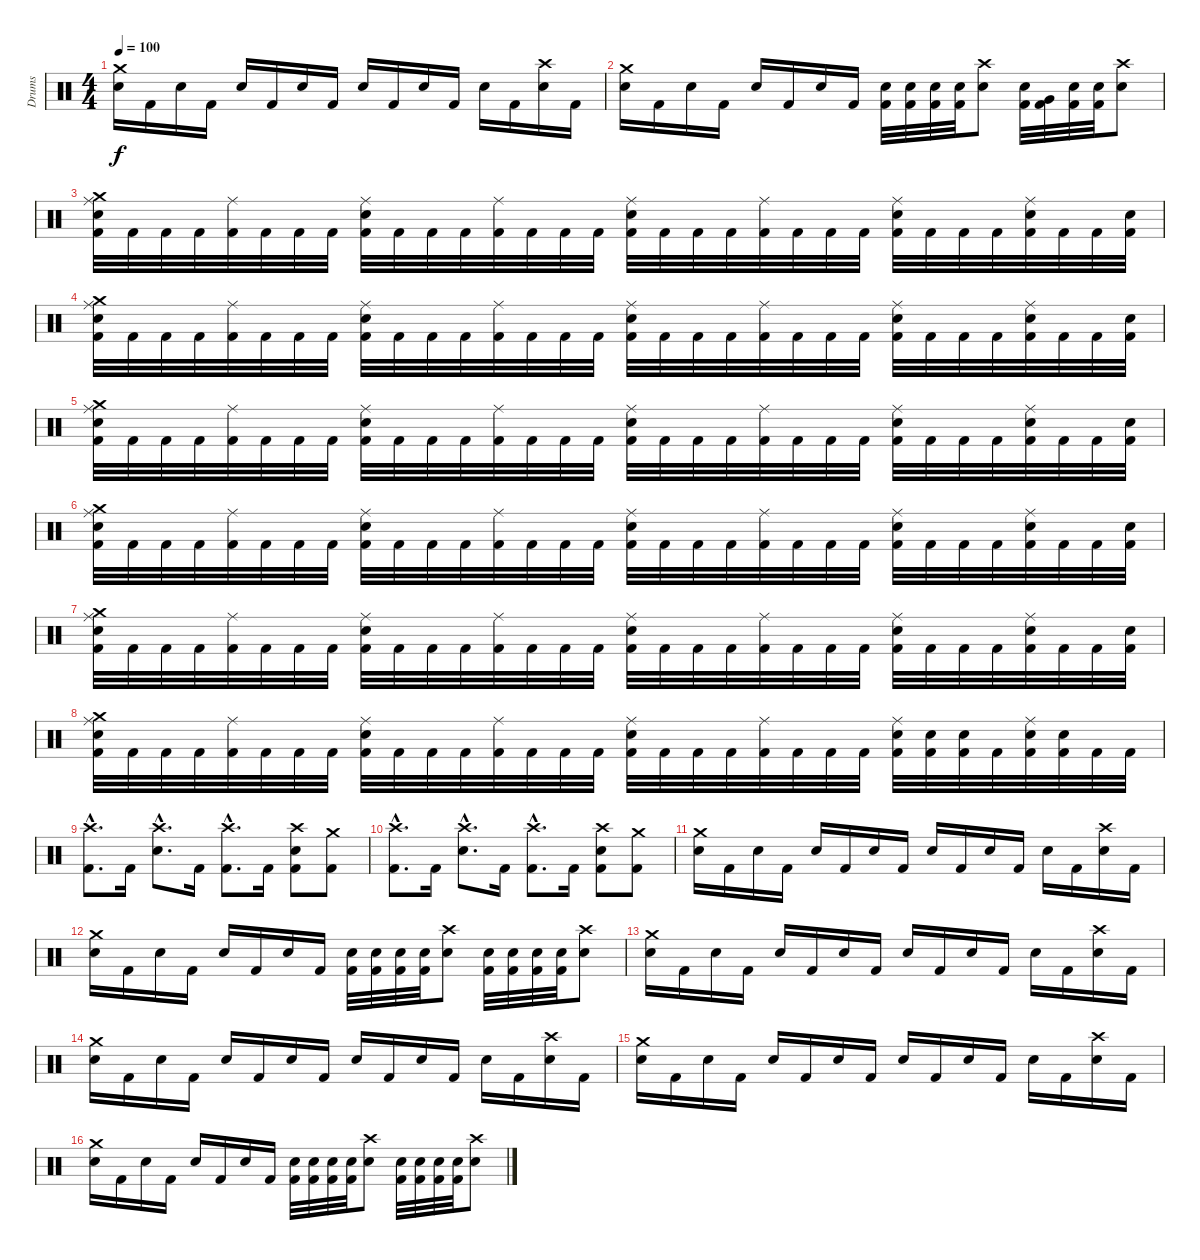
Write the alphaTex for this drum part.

\track ("Drums" "Drums") {instrument percussion}
\staff {score}
\articulation defaults
\ts (4 4)
\tempo 100
\clef neutral
\ks c
("Crash medium (hit)" "Electric Snare (hit)").16{dy f} "Kick (hit) 2".16 "Electric Snare (hit)".16 "Kick (hit) 2".16 "Electric Snare (hit)".16 "Kick (hit) 2".16 "Electric Snare (hit)".16 "Kick (hit) 2".16 "Electric Snare (hit)".16 "Kick (hit) 2".16 "Electric Snare (hit)".16 "Kick (hit) 2".16 "Electric Snare (hit)".16 "Kick (hit) 2".16 ("Crash high (hit)" "Electric Snare (hit)").16 "Kick (hit) 2".16 |
("Crash medium (hit)" "Electric Snare (hit)").16 "Kick (hit) 2".16 "Electric Snare (hit)".16 "Kick (hit) 2".16 "Electric Snare (hit)".16 "Kick (hit) 2".16 "Electric Snare (hit)".16 "Kick (hit) 2".16 ("Electric Snare (hit)" "Kick (hit) 2").32 ("Electric Snare (hit)" "Kick (hit) 2").32 ("Electric Snare (hit)" "Kick (hit) 2").32 ("Electric Snare (hit)" "Kick (hit) 2").32 ("Crash high (hit)" "Electric Snare (hit)").8 ("Electric Snare (hit)" "Kick (hit) 2").32 ("Very Low Tom (hit)" "Kick (hit) 2").32 ("Electric Snare (hit)" "Kick (hit) 2").32 ("Electric Snare (hit)" "Kick (hit) 2").32 ("Crash high (hit)" "Electric Snare (hit)").8 |
("Crash medium (hit)" "Ride (middle)" "Electric Snare (hit)" "Kick (hit) 2").32 "Kick (hit) 2".32 "Kick (hit) 2".32 "Kick (hit) 2".32 ("Ride (middle)" "Kick (hit) 2").32 "Kick (hit) 2".32 "Kick (hit) 2".32 "Kick (hit) 2".32 ("Ride (middle)" "Electric Snare (hit)" "Kick (hit) 2").32 "Kick (hit) 2".32 "Kick (hit) 2".32 "Kick (hit) 2".32 ("Ride (middle)" "Kick (hit) 2").32 "Kick (hit) 2".32 "Kick (hit) 2".32 "Kick (hit) 2".32 ("Ride (middle)" "Electric Snare (hit)" "Kick (hit) 2").32 "Kick (hit) 2".32 "Kick (hit) 2".32 "Kick (hit) 2".32 ("Ride (middle)" "Kick (hit) 2").32 "Kick (hit) 2".32 "Kick (hit) 2".32 "Kick (hit) 2".32 ("Ride (middle)" "Electric Snare (hit)" "Kick (hit) 2").32 "Kick (hit) 2".32 "Kick (hit) 2".32 "Kick (hit) 2".32 ("Ride (middle)" "Electric Snare (hit)" "Kick (hit) 2").32 "Kick (hit) 2".32 "Kick (hit) 2".32 ("Electric Snare (hit)" "Kick (hit) 2").32 |
("Crash medium (hit)" "Ride (middle)" "Electric Snare (hit)" "Kick (hit) 2").32 "Kick (hit) 2".32 "Kick (hit) 2".32 "Kick (hit) 2".32 ("Ride (middle)" "Kick (hit) 2").32 "Kick (hit) 2".32 "Kick (hit) 2".32 "Kick (hit) 2".32 ("Ride (middle)" "Electric Snare (hit)" "Kick (hit) 2").32 "Kick (hit) 2".32 "Kick (hit) 2".32 "Kick (hit) 2".32 ("Ride (middle)" "Kick (hit) 2").32 "Kick (hit) 2".32 "Kick (hit) 2".32 "Kick (hit) 2".32 ("Ride (middle)" "Electric Snare (hit)" "Kick (hit) 2").32 "Kick (hit) 2".32 "Kick (hit) 2".32 "Kick (hit) 2".32 ("Ride (middle)" "Kick (hit) 2").32 "Kick (hit) 2".32 "Kick (hit) 2".32 "Kick (hit) 2".32 ("Ride (middle)" "Electric Snare (hit)" "Kick (hit) 2").32 "Kick (hit) 2".32 "Kick (hit) 2".32 "Kick (hit) 2".32 ("Ride (middle)" "Electric Snare (hit)" "Kick (hit) 2").32 "Kick (hit) 2".32 "Kick (hit) 2".32 ("Electric Snare (hit)" "Kick (hit) 2").32 |
("Crash medium (hit)" "Ride (middle)" "Electric Snare (hit)" "Kick (hit) 2").32 "Kick (hit) 2".32 "Kick (hit) 2".32 "Kick (hit) 2".32 ("Ride (middle)" "Kick (hit) 2").32 "Kick (hit) 2".32 "Kick (hit) 2".32 "Kick (hit) 2".32 ("Ride (middle)" "Electric Snare (hit)" "Kick (hit) 2").32 "Kick (hit) 2".32 "Kick (hit) 2".32 "Kick (hit) 2".32 ("Ride (middle)" "Kick (hit) 2").32 "Kick (hit) 2".32 "Kick (hit) 2".32 "Kick (hit) 2".32 ("Ride (middle)" "Electric Snare (hit)" "Kick (hit) 2").32 "Kick (hit) 2".32 "Kick (hit) 2".32 "Kick (hit) 2".32 ("Ride (middle)" "Kick (hit) 2").32 "Kick (hit) 2".32 "Kick (hit) 2".32 "Kick (hit) 2".32 ("Ride (middle)" "Electric Snare (hit)" "Kick (hit) 2").32 "Kick (hit) 2".32 "Kick (hit) 2".32 "Kick (hit) 2".32 ("Ride (middle)" "Electric Snare (hit)" "Kick (hit) 2").32 "Kick (hit) 2".32 "Kick (hit) 2".32 ("Electric Snare (hit)" "Kick (hit) 2").32 |
("Crash medium (hit)" "Ride (middle)" "Electric Snare (hit)" "Kick (hit) 2").32 "Kick (hit) 2".32 "Kick (hit) 2".32 "Kick (hit) 2".32 ("Ride (middle)" "Kick (hit) 2").32 "Kick (hit) 2".32 "Kick (hit) 2".32 "Kick (hit) 2".32 ("Ride (middle)" "Electric Snare (hit)" "Kick (hit) 2").32 "Kick (hit) 2".32 "Kick (hit) 2".32 "Kick (hit) 2".32 ("Ride (middle)" "Kick (hit) 2").32 "Kick (hit) 2".32 "Kick (hit) 2".32 "Kick (hit) 2".32 ("Ride (middle)" "Electric Snare (hit)" "Kick (hit) 2").32 "Kick (hit) 2".32 "Kick (hit) 2".32 "Kick (hit) 2".32 ("Ride (middle)" "Kick (hit) 2").32 "Kick (hit) 2".32 "Kick (hit) 2".32 "Kick (hit) 2".32 ("Ride (middle)" "Electric Snare (hit)" "Kick (hit) 2").32 "Kick (hit) 2".32 "Kick (hit) 2".32 "Kick (hit) 2".32 ("Ride (middle)" "Electric Snare (hit)" "Kick (hit) 2").32 "Kick (hit) 2".32 "Kick (hit) 2".32 ("Electric Snare (hit)" "Kick (hit) 2").32 |
("Crash medium (hit)" "Ride (middle)" "Electric Snare (hit)" "Kick (hit) 2").32 "Kick (hit) 2".32 "Kick (hit) 2".32 "Kick (hit) 2".32 ("Ride (middle)" "Kick (hit) 2").32 "Kick (hit) 2".32 "Kick (hit) 2".32 "Kick (hit) 2".32 ("Ride (middle)" "Electric Snare (hit)" "Kick (hit) 2").32 "Kick (hit) 2".32 "Kick (hit) 2".32 "Kick (hit) 2".32 ("Ride (middle)" "Kick (hit) 2").32 "Kick (hit) 2".32 "Kick (hit) 2".32 "Kick (hit) 2".32 ("Ride (middle)" "Electric Snare (hit)" "Kick (hit) 2").32 "Kick (hit) 2".32 "Kick (hit) 2".32 "Kick (hit) 2".32 ("Ride (middle)" "Kick (hit) 2").32 "Kick (hit) 2".32 "Kick (hit) 2".32 "Kick (hit) 2".32 ("Ride (middle)" "Electric Snare (hit)" "Kick (hit) 2").32 "Kick (hit) 2".32 "Kick (hit) 2".32 "Kick (hit) 2".32 ("Ride (middle)" "Electric Snare (hit)" "Kick (hit) 2").32 "Kick (hit) 2".32 "Kick (hit) 2".32 ("Electric Snare (hit)" "Kick (hit) 2").32 |
("Crash medium (hit)" "Ride (middle)" "Electric Snare (hit)" "Kick (hit) 2").32 "Kick (hit) 2".32 "Kick (hit) 2".32 "Kick (hit) 2".32 ("Ride (middle)" "Kick (hit) 2").32 "Kick (hit) 2".32 "Kick (hit) 2".32 "Kick (hit) 2".32 ("Ride (middle)" "Electric Snare (hit)" "Kick (hit) 2").32 "Kick (hit) 2".32 "Kick (hit) 2".32 "Kick (hit) 2".32 ("Ride (middle)" "Kick (hit) 2").32 "Kick (hit) 2".32 "Kick (hit) 2".32 "Kick (hit) 2".32 ("Ride (middle)" "Electric Snare (hit)" "Kick (hit) 2").32 "Kick (hit) 2".32 "Kick (hit) 2".32 "Kick (hit) 2".32 ("Ride (middle)" "Kick (hit) 2").32 "Kick (hit) 2".32 "Kick (hit) 2".32 "Kick (hit) 2".32 ("Ride (middle)" "Electric Snare (hit)" "Kick (hit) 2").32 ("Electric Snare (hit)" "Kick (hit) 2").32 ("Electric Snare (hit)" "Kick (hit) 2").32 "Kick (hit) 2".32 ("Ride (middle)" "Electric Snare (hit)" "Kick (hit) 2").32 ("Electric Snare (hit)" "Kick (hit) 2").32 "Kick (hit) 2".32 "Kick (hit) 2".32 |
("Crash high (hit)"{hac} "Kick (hit) 2"{hac}).8{d} "Kick (hit) 2".16 ("Crash high (hit)"{hac} "Electric Snare (hit)"{hac}).8{d} "Kick (hit) 2".16 ("Crash high (hit)"{hac} "Kick (hit) 2"{hac}).8{d} "Kick (hit) 2".16 ("Crash high (hit)" "Electric Snare (hit)" "Kick (hit) 2").8 ("Crash medium (hit)" "Kick (hit) 2").8 |
("Crash high (hit)"{hac} "Kick (hit) 2"{hac}).8{d} "Kick (hit) 2".16 ("Crash high (hit)"{hac} "Electric Snare (hit)"{hac}).8{d} "Kick (hit) 2".16 ("Crash high (hit)"{hac} "Kick (hit) 2"{hac}).8{d} "Kick (hit) 2".16 ("Crash high (hit)" "Electric Snare (hit)" "Kick (hit) 2").8 ("Crash medium (hit)" "Kick (hit) 2").8 |
("Crash medium (hit)" "Electric Snare (hit)").16 "Kick (hit) 2".16 "Electric Snare (hit)".16 "Kick (hit) 2".16 "Electric Snare (hit)".16 "Kick (hit) 2".16 "Electric Snare (hit)".16 "Kick (hit) 2".16 "Electric Snare (hit)".16 "Kick (hit) 2".16 "Electric Snare (hit)".16 "Kick (hit) 2".16 "Electric Snare (hit)".16 "Kick (hit) 2".16 ("Crash high (hit)" "Electric Snare (hit)").16 "Kick (hit) 2".16 |
("Crash medium (hit)" "Electric Snare (hit)").16 "Kick (hit) 2".16 "Electric Snare (hit)".16 "Kick (hit) 2".16 "Electric Snare (hit)".16 "Kick (hit) 2".16 "Electric Snare (hit)".16 "Kick (hit) 2".16 ("Electric Snare (hit)" "Kick (hit) 2").32 ("Electric Snare (hit)" "Kick (hit) 2").32 ("Electric Snare (hit)" "Kick (hit) 2").32 ("Electric Snare (hit)" "Kick (hit) 2").32 ("Crash high (hit)" "Electric Snare (hit)").8 ("Electric Snare (hit)" "Kick (hit) 2").32 ("Electric Snare (hit)" "Kick (hit) 2").32 ("Electric Snare (hit)" "Kick (hit) 2").32 ("Electric Snare (hit)" "Kick (hit) 2").32 ("Crash high (hit)" "Electric Snare (hit)").8 |
("Crash medium (hit)" "Electric Snare (hit)").16 "Kick (hit) 2".16 "Electric Snare (hit)".16 "Kick (hit) 2".16 "Electric Snare (hit)".16 "Kick (hit) 2".16 "Electric Snare (hit)".16 "Kick (hit) 2".16 "Electric Snare (hit)".16 "Kick (hit) 2".16 "Electric Snare (hit)".16 "Kick (hit) 2".16 "Electric Snare (hit)".16 "Kick (hit) 2".16 ("Crash high (hit)" "Electric Snare (hit)").16 "Kick (hit) 2".16 |
("Crash medium (hit)" "Electric Snare (hit)").16 "Kick (hit) 2".16 "Electric Snare (hit)".16 "Kick (hit) 2".16 "Electric Snare (hit)".16 "Kick (hit) 2".16 "Electric Snare (hit)".16 "Kick (hit) 2".16 "Electric Snare (hit)".16 "Kick (hit) 2".16 "Electric Snare (hit)".16 "Kick (hit) 2".16 "Electric Snare (hit)".16 "Kick (hit) 2".16 ("Crash high (hit)" "Electric Snare (hit)").16 "Kick (hit) 2".16 |
("Crash medium (hit)" "Electric Snare (hit)").16 "Kick (hit) 2".16 "Electric Snare (hit)".16 "Kick (hit) 2".16 "Electric Snare (hit)".16 "Kick (hit) 2".16 "Electric Snare (hit)".16 "Kick (hit) 2".16 "Electric Snare (hit)".16 "Kick (hit) 2".16 "Electric Snare (hit)".16 "Kick (hit) 2".16 "Electric Snare (hit)".16 "Kick (hit) 2".16 ("Crash high (hit)" "Electric Snare (hit)").16 "Kick (hit) 2".16 |
("Crash medium (hit)" "Electric Snare (hit)").16 "Kick (hit) 2".16 "Electric Snare (hit)".16 "Kick (hit) 2".16 "Electric Snare (hit)".16 "Kick (hit) 2".16 "Electric Snare (hit)".16 "Kick (hit) 2".16 ("Electric Snare (hit)" "Kick (hit) 2").32 ("Electric Snare (hit)" "Kick (hit) 2").32 ("Electric Snare (hit)" "Kick (hit) 2").32 ("Electric Snare (hit)" "Kick (hit) 2").32 ("Crash high (hit)" "Electric Snare (hit)").8 ("Electric Snare (hit)" "Kick (hit) 2").32 ("Electric Snare (hit)" "Kick (hit) 2").32 ("Electric Snare (hit)" "Kick (hit) 2").32 ("Electric Snare (hit)" "Kick (hit) 2").32 ("Crash high (hit)" "Electric Snare (hit)").8
